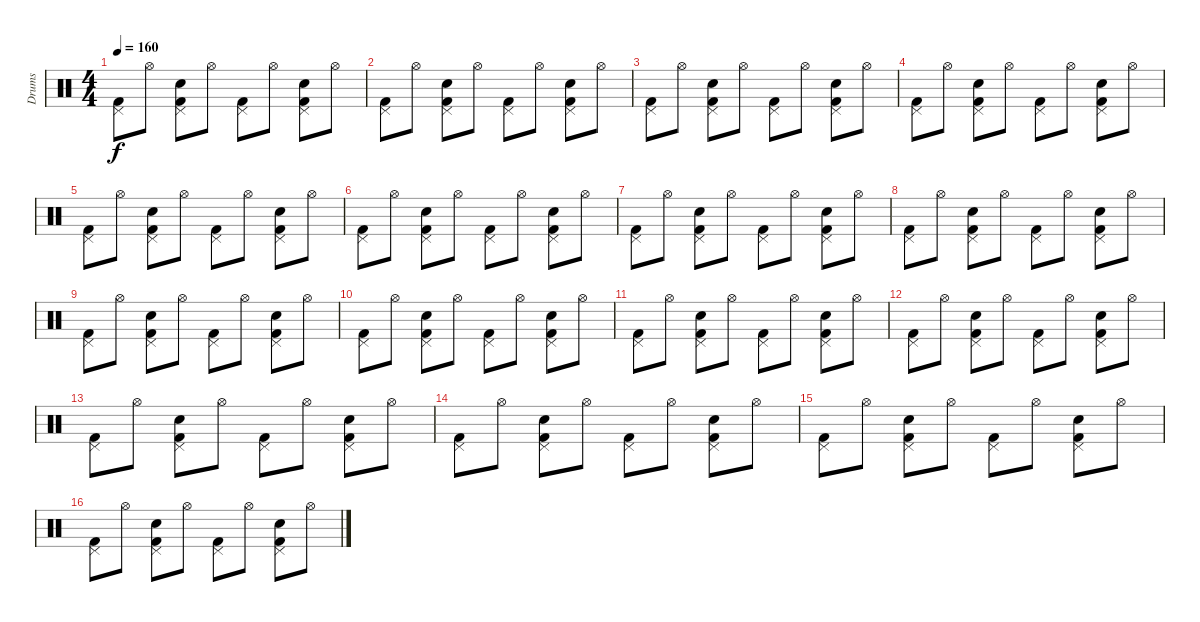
\track ("Drums" "Drums") {instrument percussion}
\staff {score}
\articulation defaults
\ts (4 4)
\tempo 160
\clef neutral
\ks c
("Pedal Hi-Hat (hit)" "Kick (hit) 2").8{dy f volume 12 balance 8} "Hi-Hat (open)".8 ("Pedal Hi-Hat (hit)" "Electric Snare (hit)" "Kick (hit) 2").8 "Hi-Hat (open)".8 ("Pedal Hi-Hat (hit)" "Kick (hit) 2").8 "Hi-Hat (open)".8 ("Pedal Hi-Hat (hit)" "Electric Snare (hit)" "Kick (hit) 2").8 "Hi-Hat (open)".8 |
("Pedal Hi-Hat (hit)" "Kick (hit) 2").8{volume 12 balance 8} "Hi-Hat (open)".8 ("Pedal Hi-Hat (hit)" "Electric Snare (hit)" "Kick (hit) 2").8 "Hi-Hat (open)".8 ("Pedal Hi-Hat (hit)" "Kick (hit) 2").8 "Hi-Hat (open)".8 ("Pedal Hi-Hat (hit)" "Electric Snare (hit)" "Kick (hit) 2").8 "Hi-Hat (open)".8 |
("Pedal Hi-Hat (hit)" "Kick (hit) 2").8 "Hi-Hat (open)".8 ("Pedal Hi-Hat (hit)" "Electric Snare (hit)" "Kick (hit) 2").8 "Hi-Hat (open)".8 ("Pedal Hi-Hat (hit)" "Kick (hit) 2").8 "Hi-Hat (open)".8 ("Pedal Hi-Hat (hit)" "Electric Snare (hit)" "Kick (hit) 2").8 "Hi-Hat (open)".8 |
("Pedal Hi-Hat (hit)" "Kick (hit) 2").8 "Hi-Hat (open)".8 ("Pedal Hi-Hat (hit)" "Electric Snare (hit)" "Kick (hit) 2").8 "Hi-Hat (open)".8 ("Pedal Hi-Hat (hit)" "Kick (hit) 2").8 "Hi-Hat (open)".8 ("Pedal Hi-Hat (hit)" "Electric Snare (hit)" "Kick (hit) 2").8 "Hi-Hat (open)".8 |
("Pedal Hi-Hat (hit)" "Kick (hit) 2").8 "Hi-Hat (open)".8 ("Pedal Hi-Hat (hit)" "Electric Snare (hit)" "Kick (hit) 2").8 "Hi-Hat (open)".8 ("Pedal Hi-Hat (hit)" "Kick (hit) 2").8 "Hi-Hat (open)".8 ("Pedal Hi-Hat (hit)" "Electric Snare (hit)" "Kick (hit) 2").8 "Hi-Hat (open)".8 |
("Pedal Hi-Hat (hit)" "Kick (hit) 2").8 "Hi-Hat (open)".8 ("Pedal Hi-Hat (hit)" "Electric Snare (hit)" "Kick (hit) 2").8 "Hi-Hat (open)".8 ("Pedal Hi-Hat (hit)" "Kick (hit) 2").8 "Hi-Hat (open)".8 ("Pedal Hi-Hat (hit)" "Electric Snare (hit)" "Kick (hit) 2").8 "Hi-Hat (open)".8 |
("Pedal Hi-Hat (hit)" "Kick (hit) 2").8 "Hi-Hat (open)".8 ("Pedal Hi-Hat (hit)" "Electric Snare (hit)" "Kick (hit) 2").8 "Hi-Hat (open)".8 ("Pedal Hi-Hat (hit)" "Kick (hit) 2").8 "Hi-Hat (open)".8 ("Pedal Hi-Hat (hit)" "Electric Snare (hit)" "Kick (hit) 2").8 "Hi-Hat (open)".8 |
("Pedal Hi-Hat (hit)" "Kick (hit) 2").8 "Hi-Hat (open)".8 ("Pedal Hi-Hat (hit)" "Electric Snare (hit)" "Kick (hit) 2").8 "Hi-Hat (open)".8 ("Pedal Hi-Hat (hit)" "Kick (hit) 2").8 "Hi-Hat (open)".8 ("Pedal Hi-Hat (hit)" "Electric Snare (hit)" "Kick (hit) 2").8 "Hi-Hat (open)".8 |
("Pedal Hi-Hat (hit)" "Kick (hit) 2").8 "Hi-Hat (open)".8 ("Pedal Hi-Hat (hit)" "Electric Snare (hit)" "Kick (hit) 2").8 "Hi-Hat (open)".8 ("Pedal Hi-Hat (hit)" "Kick (hit) 2").8 "Hi-Hat (open)".8 ("Pedal Hi-Hat (hit)" "Electric Snare (hit)" "Kick (hit) 2").8 "Hi-Hat (open)".8 |
("Pedal Hi-Hat (hit)" "Kick (hit) 2").8{volume 12 balance 8} "Hi-Hat (open)".8 ("Pedal Hi-Hat (hit)" "Electric Snare (hit)" "Kick (hit) 2").8 "Hi-Hat (open)".8 ("Pedal Hi-Hat (hit)" "Kick (hit) 2").8 "Hi-Hat (open)".8 ("Pedal Hi-Hat (hit)" "Electric Snare (hit)" "Kick (hit) 2").8 "Hi-Hat (open)".8 |
("Pedal Hi-Hat (hit)" "Kick (hit) 2").8 "Hi-Hat (open)".8 ("Pedal Hi-Hat (hit)" "Electric Snare (hit)" "Kick (hit) 2").8 "Hi-Hat (open)".8 ("Pedal Hi-Hat (hit)" "Kick (hit) 2").8 "Hi-Hat (open)".8 ("Pedal Hi-Hat (hit)" "Electric Snare (hit)" "Kick (hit) 2").8 "Hi-Hat (open)".8 |
("Pedal Hi-Hat (hit)" "Kick (hit) 2").8 "Hi-Hat (open)".8 ("Pedal Hi-Hat (hit)" "Electric Snare (hit)" "Kick (hit) 2").8 "Hi-Hat (open)".8 ("Pedal Hi-Hat (hit)" "Kick (hit) 2").8 "Hi-Hat (open)".8 ("Pedal Hi-Hat (hit)" "Electric Snare (hit)" "Kick (hit) 2").8 "Hi-Hat (open)".8 |
("Pedal Hi-Hat (hit)" "Kick (hit) 2").8 "Hi-Hat (open)".8 ("Pedal Hi-Hat (hit)" "Electric Snare (hit)" "Kick (hit) 2").8 "Hi-Hat (open)".8 ("Pedal Hi-Hat (hit)" "Kick (hit) 2").8 "Hi-Hat (open)".8 ("Pedal Hi-Hat (hit)" "Electric Snare (hit)" "Kick (hit) 2").8 "Hi-Hat (open)".8 |
("Pedal Hi-Hat (hit)" "Kick (hit) 2").8 "Hi-Hat (open)".8 ("Pedal Hi-Hat (hit)" "Electric Snare (hit)" "Kick (hit) 2").8 "Hi-Hat (open)".8 ("Pedal Hi-Hat (hit)" "Kick (hit) 2").8 "Hi-Hat (open)".8 ("Pedal Hi-Hat (hit)" "Electric Snare (hit)" "Kick (hit) 2").8 "Hi-Hat (open)".8 |
("Pedal Hi-Hat (hit)" "Kick (hit) 2").8 "Hi-Hat (open)".8 ("Pedal Hi-Hat (hit)" "Electric Snare (hit)" "Kick (hit) 2").8 "Hi-Hat (open)".8 ("Pedal Hi-Hat (hit)" "Kick (hit) 2").8 "Hi-Hat (open)".8 ("Pedal Hi-Hat (hit)" "Electric Snare (hit)" "Kick (hit) 2").8 "Hi-Hat (open)".8 |
("Pedal Hi-Hat (hit)" "Kick (hit) 2").8 "Hi-Hat (open)".8 ("Pedal Hi-Hat (hit)" "Electric Snare (hit)" "Kick (hit) 2").8 "Hi-Hat (open)".8 ("Pedal Hi-Hat (hit)" "Kick (hit) 2").8 "Hi-Hat (open)".8 ("Pedal Hi-Hat (hit)" "Electric Snare (hit)" "Kick (hit) 2").8 "Hi-Hat (open)".8
